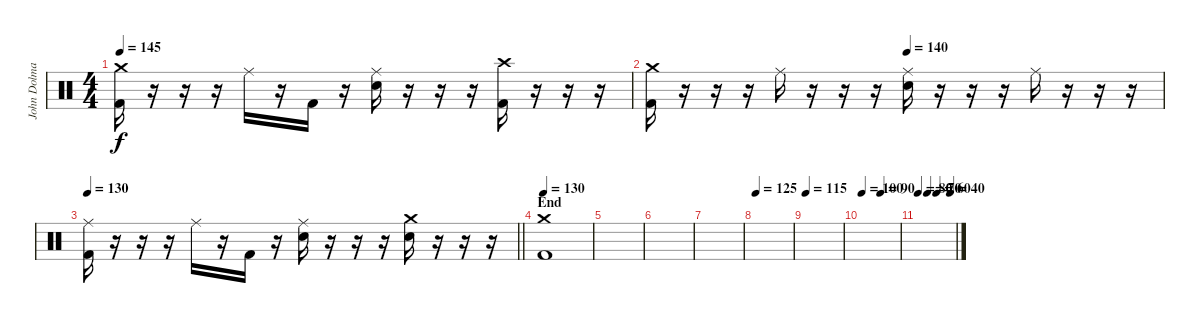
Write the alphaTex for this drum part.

\track ("John Dolmayan" "John Dolma") {instrument percussion}
\staff {score}
\articulation defaults
\ts (4 4)
\tempo 145
\clef neutral
\ks c
("Crash medium (hit)" "Kick (hit) 2").16{dy f} r.16 r.16 r.16 "Ride (middle)".16 r.16 "Kick (hit) 2".16 r.16 ("Ride (middle)" "Electric Snare (hit)").16 r.16 r.16 r.16 ("Crash high (hit)" "Kick (hit) 2").16 r.16 r.16 r.16 |
\tempo (140 0.5)
("Crash medium (hit)" "Kick (hit) 2").16 r.16 r.16 r.16 "Ride (middle)".16 r.16 r.16 r.16 ("Ride (middle)" "Electric Snare (hit)").16 r.16 r.16 r.16 "Ride (middle)".16 r.16 r.16 r.16 |
\tempo 130
\barLineRight lightlight
("Ride (middle)" "Kick (hit) 2").16 r.16 r.16 r.16 "Ride (middle)".16 r.16 "Kick (hit) 2".16 r.16 ("Ride (middle)" "Electric Snare (hit)").16 r.16 r.16 r.16 ("Crash medium (hit)" "Electric Snare (hit)").16 r.16 r.16 r.16 |
\section ("" "End")
\tempo 130
("Crash medium (hit)" "Kick (hit) 2").1 |
|
|
|
\tempo 125
|
\tempo 115
|
\tempo 100
\tempo (90 0.5)
|
\tempo 80
\tempo (70 0.25)
\tempo (60 0.5)
\tempo (40 0.875)
